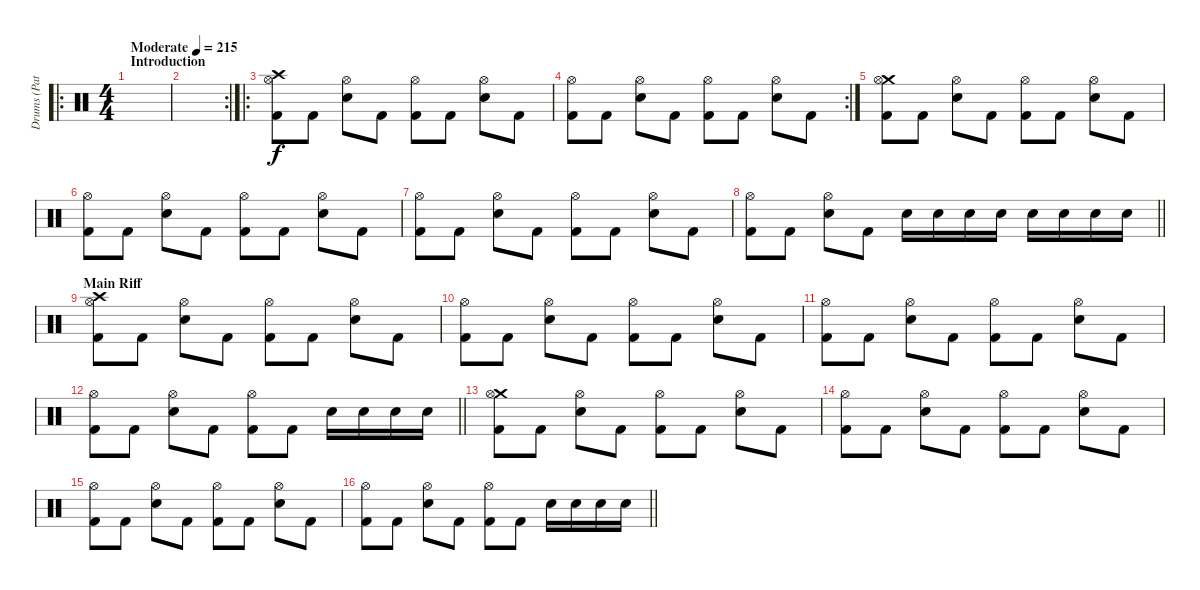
\track ("Drums (Pat Thetic)" "Drums (Pat") {instrument percussion}
\staff {score}
\articulation defaults
\ro
\ts (4 4)
\section ("" "Introduction")
\tempo (215 "Moderate")
\clef neutral
\ks c
|
\rc 2
|
\ro
("Crash high (hit)" "Hi-Hat (open)" "Kick (hit) 2").8 "Kick (hit) 2".8 ("Hi-Hat (open)" "Snare (hit) 2").8 "Kick (hit) 2".8 ("Hi-Hat (open)" "Kick (hit) 2").8 "Kick (hit) 2".8 ("Hi-Hat (open)" "Snare (hit) 2").8 "Kick (hit) 2".8 |
\rc 2
("Hi-Hat (open)" "Kick (hit) 2").8 "Kick (hit) 2".8 ("Hi-Hat (open)" "Snare (hit) 2").8 "Kick (hit) 2".8 ("Hi-Hat (open)" "Kick (hit) 2").8 "Kick (hit) 2".8 ("Hi-Hat (open)" "Snare (hit) 2").8 "Kick (hit) 2".8 |
("Crash medium (hit)" "Hi-Hat (open)" "Kick (hit) 2").8 "Kick (hit) 2".8 ("Hi-Hat (open)" "Snare (hit) 2").8 "Kick (hit) 2".8 ("Hi-Hat (open)" "Kick (hit) 2").8 "Kick (hit) 2".8 ("Hi-Hat (open)" "Snare (hit) 2").8 "Kick (hit) 2".8 |
("Hi-Hat (open)" "Kick (hit) 2").8 "Kick (hit) 2".8 ("Hi-Hat (open)" "Snare (hit) 2").8 "Kick (hit) 2".8 ("Hi-Hat (open)" "Kick (hit) 2").8 "Kick (hit) 2".8 ("Hi-Hat (open)" "Snare (hit) 2").8 "Kick (hit) 2".8 |
("Hi-Hat (open)" "Kick (hit) 2").8 "Kick (hit) 2".8 ("Hi-Hat (open)" "Snare (hit) 2").8 "Kick (hit) 2".8 ("Hi-Hat (open)" "Kick (hit) 2").8 "Kick (hit) 2".8 ("Hi-Hat (open)" "Snare (hit) 2").8 "Kick (hit) 2".8 |
\barLineRight lightlight
("Hi-Hat (open)" "Kick (hit) 2").8 "Kick (hit) 2".8 ("Hi-Hat (open)" "Snare (hit) 2").8 "Kick (hit) 2".8 "Snare (hit) 2".16 "Snare (hit) 2".16 "Snare (hit) 2".16 "Snare (hit) 2".16 "Snare (hit) 2".16 "Snare (hit) 2".16 "Snare (hit) 2".16 "Snare (hit) 2".16 |
\section ("" "Main Riff")
("Crash high (hit)" "Hi-Hat (open)" "Kick (hit) 2").8 "Kick (hit) 2".8 ("Hi-Hat (open)" "Snare (hit) 2").8 "Kick (hit) 2".8 ("Hi-Hat (open)" "Kick (hit) 2").8 "Kick (hit) 2".8 ("Hi-Hat (open)" "Snare (hit) 2").8 "Kick (hit) 2".8 |
("Hi-Hat (open)" "Kick (hit) 2").8 "Kick (hit) 2".8 ("Hi-Hat (open)" "Snare (hit) 2").8 "Kick (hit) 2".8 ("Hi-Hat (open)" "Kick (hit) 2").8 "Kick (hit) 2".8 ("Hi-Hat (open)" "Snare (hit) 2").8 "Kick (hit) 2".8 |
("Hi-Hat (open)" "Kick (hit) 2").8 "Kick (hit) 2".8 ("Hi-Hat (open)" "Snare (hit) 2").8 "Kick (hit) 2".8 ("Hi-Hat (open)" "Kick (hit) 2").8 "Kick (hit) 2".8 ("Hi-Hat (open)" "Snare (hit) 2").8 "Kick (hit) 2".8 |
\barLineRight lightlight
("Hi-Hat (open)" "Kick (hit) 2").8 "Kick (hit) 2".8 ("Hi-Hat (open)" "Snare (hit) 2").8 "Kick (hit) 2".8 ("Hi-Hat (open)" "Kick (hit) 2").8 "Kick (hit) 2".8 "Snare (hit) 2".16 "Snare (hit) 2".16 "Snare (hit) 2".16 "Snare (hit) 2".16 |
("Crash medium (hit)" "Hi-Hat (open)" "Kick (hit) 2").8 "Kick (hit) 2".8 ("Hi-Hat (open)" "Snare (hit) 2").8 "Kick (hit) 2".8 ("Hi-Hat (open)" "Kick (hit) 2").8 "Kick (hit) 2".8 ("Hi-Hat (open)" "Snare (hit) 2").8 "Kick (hit) 2".8 |
("Hi-Hat (open)" "Kick (hit) 2").8 "Kick (hit) 2".8 ("Hi-Hat (open)" "Snare (hit) 2").8 "Kick (hit) 2".8 ("Hi-Hat (open)" "Kick (hit) 2").8 "Kick (hit) 2".8 ("Hi-Hat (open)" "Snare (hit) 2").8 "Kick (hit) 2".8 |
("Hi-Hat (open)" "Kick (hit) 2").8 "Kick (hit) 2".8 ("Hi-Hat (open)" "Snare (hit) 2").8 "Kick (hit) 2".8 ("Hi-Hat (open)" "Kick (hit) 2").8 "Kick (hit) 2".8 ("Hi-Hat (open)" "Snare (hit) 2").8 "Kick (hit) 2".8 |
\barLineRight lightlight
("Hi-Hat (open)" "Kick (hit) 2").8 "Kick (hit) 2".8 ("Hi-Hat (open)" "Snare (hit) 2").8 "Kick (hit) 2".8 ("Hi-Hat (open)" "Kick (hit) 2").8 "Kick (hit) 2".8 "Snare (hit) 2".16 "Snare (hit) 2".16 "Snare (hit) 2".16 "Snare (hit) 2".16
